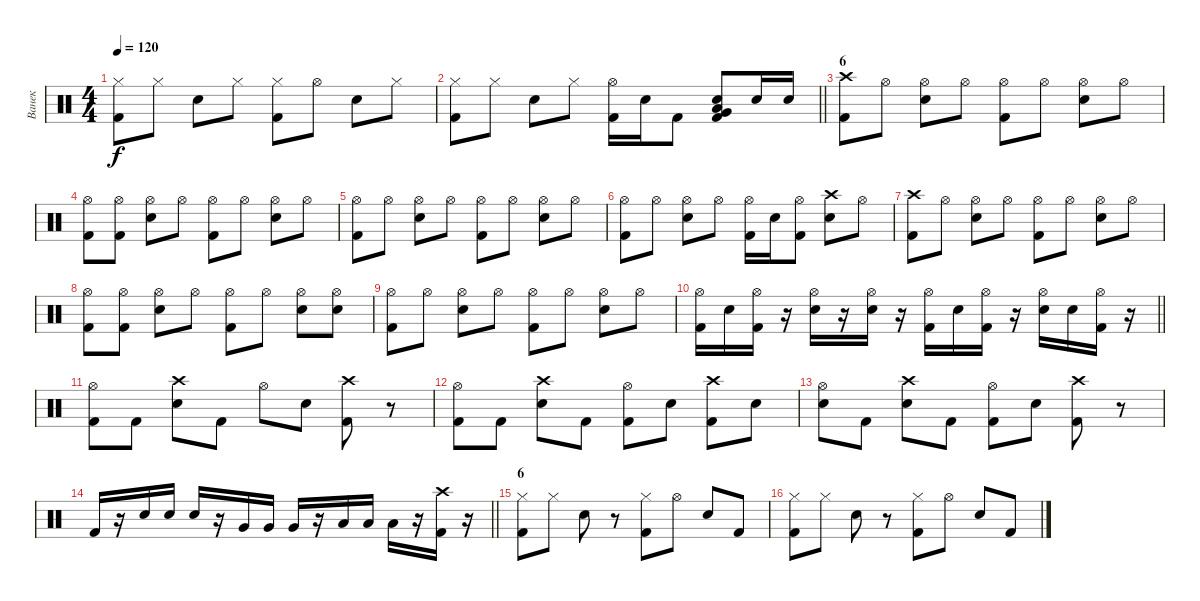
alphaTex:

\track ("Ванек" "Ванек") {instrument percussion}
\staff {score}
\articulation defaults
\ts (4 4)
\tempo 120
\clef neutral
\ks c
("Hi-Hat (closed)" "Kick (hit) 2").8{dy f} "Hi-Hat (closed)".8 "Electric Snare (hit)".8 "Hi-Hat (closed)".8 ("Hi-Hat (closed)" "Kick (hit) 2").8 "Hi-Hat (open)".8 "Electric Snare (hit)".8 "Hi-Hat (closed)".8 |
\barLineRight lightlight
("Hi-Hat (closed)" "Kick (hit) 2").8 "Hi-Hat (closed)".8 "Electric Snare (hit)".8 "Hi-Hat (closed)".8 ("Hi-Hat (open)" "Kick (hit) 2").16 "Electric Snare (hit)".16 "Kick (hit) 2".8 ("Low Tom (hit)" "Very Low Tom (hit)" "Electric Snare (hit)" "Kick (hit) 2").8 "Electric Snare (hit)".16 "Electric Snare (hit)".16 |
\section ("" "6")
("Crash high (hit)" "Kick (hit) 2").8 "Hi-Hat (open)".8 ("Hi-Hat (open)" "Electric Snare (hit)").8 "Hi-Hat (open)".8 ("Hi-Hat (open)" "Kick (hit) 2").8 "Hi-Hat (open)".8 ("Hi-Hat (open)" "Electric Snare (hit)").8 "Hi-Hat (open)".8 |
("Hi-Hat (open)" "Kick (hit) 2").8 ("Hi-Hat (open)" "Kick (hit) 2").8 ("Hi-Hat (open)" "Electric Snare (hit)").8 "Hi-Hat (open)".8 ("Hi-Hat (open)" "Kick (hit) 2").8 "Hi-Hat (open)".8 ("Hi-Hat (open)" "Electric Snare (hit)").8 "Hi-Hat (open)".8 |
("Hi-Hat (open)" "Kick (hit) 2").8 "Hi-Hat (open)".8 ("Hi-Hat (open)" "Electric Snare (hit)").8 "Hi-Hat (open)".8 ("Hi-Hat (open)" "Kick (hit) 2").8 "Hi-Hat (open)".8 ("Hi-Hat (open)" "Electric Snare (hit)").8 "Hi-Hat (open)".8 |
("Hi-Hat (open)" "Kick (hit) 2").8 "Hi-Hat (open)".8 ("Hi-Hat (open)" "Electric Snare (hit)").8 "Hi-Hat (open)".8 ("Hi-Hat (open)" "Kick (hit) 2").16 "Electric Snare (hit)".16 ("Hi-Hat (open)" "Kick (hit) 2").8 ("Crash high (hit)" "Electric Snare (hit)").8 "Hi-Hat (open)".8 |
("Crash high (hit)" "Kick (hit) 2").8 "Hi-Hat (open)".8 ("Hi-Hat (open)" "Electric Snare (hit)").8 "Hi-Hat (open)".8 ("Hi-Hat (open)" "Kick (hit) 2").8 "Hi-Hat (open)".8 ("Hi-Hat (open)" "Electric Snare (hit)").8 "Hi-Hat (open)".8 |
("Hi-Hat (open)" "Kick (hit) 2").8 ("Hi-Hat (open)" "Kick (hit) 2").8 ("Hi-Hat (open)" "Electric Snare (hit)").8 "Hi-Hat (open)".8 ("Hi-Hat (open)" "Kick (hit) 2").8 "Hi-Hat (open)".8 ("Hi-Hat (open)" "Electric Snare (hit)").8 ("Hi-Hat (open)" "Electric Snare (hit)").8 |
("Hi-Hat (open)" "Kick (hit) 2").8 "Hi-Hat (open)".8 ("Hi-Hat (open)" "Electric Snare (hit)").8 "Hi-Hat (open)".8 ("Hi-Hat (open)" "Kick (hit) 2").8 "Hi-Hat (open)".8 ("Hi-Hat (open)" "Electric Snare (hit)").8 "Hi-Hat (open)".8 |
\barLineRight lightlight
("Hi-Hat (open)" "Kick (hit) 2").16 "Electric Snare (hit)".16 ("Hi-Hat (open)" "Kick (hit) 2").16 r.16 ("Hi-Hat (open)" "Electric Snare (hit)").16 r.16 ("Hi-Hat (open)" "Electric Snare (hit)").16 r.16 ("Hi-Hat (open)" "Kick (hit) 2").16 "Electric Snare (hit)".16 ("Hi-Hat (open)" "Kick (hit) 2").16 r.16 ("Hi-Hat (open)" "Electric Snare (hit)").16 "Electric Snare (hit)".16 ("Hi-Hat (open)" "Kick (hit) 2").16 r.16 |
("Hi-Hat (open)" "Kick (hit) 2").8 "Kick (hit) 2".8 ("Crash high (hit)" "Electric Snare (hit)").8 "Kick (hit) 2".8 "Hi-Hat (open)".8 "Electric Snare (hit)".8 ("Crash high (hit)" "Kick (hit) 2").8 r.8 |
("Hi-Hat (open)" "Kick (hit) 2").8 "Kick (hit) 2".8 ("Crash high (hit)" "Electric Snare (hit)").8 "Kick (hit) 2".8 ("Hi-Hat (open)" "Kick (hit) 2").8 "Electric Snare (hit)".8 ("Crash high (hit)" "Kick (hit) 2").8 "Electric Snare (hit)".8 |
("Hi-Hat (open)" "Electric Snare (hit)").8 "Kick (hit) 2".8 ("Crash high (hit)" "Electric Snare (hit)").8 "Kick (hit) 2".8 ("Hi-Hat (open)" "Kick (hit) 2").8 "Electric Snare (hit)".8 ("Crash high (hit)" "Kick (hit) 2").8 r.8 |
\barLineRight lightlight "Kick (hit) 2".16
r.16 "Electric Snare (hit)".16 "Electric Snare (hit)".16 "Electric Snare (hit)".16 r.16 "Very Low Tom (hit)".16 "Very Low Tom (hit)".16 "Very Low Tom (hit)".16 r.16 "Low Tom (hit)".16 "Low Tom (hit)".16 "Low Tom (hit)".16 r.16 ("Crash high (hit)" "Kick (hit) 2").16 r.16 |
\section ("" "6")
("Hi-Hat (closed)" "Kick (hit) 2").8 "Hi-Hat (closed)".8 "Electric Snare (hit)".8 r.8 ("Hi-Hat (closed)" "Kick (hit) 2").8 "Hi-Hat (open)".8 "Electric Snare (hit)".8 "Kick (hit) 2".8 |
("Hi-Hat (closed)" "Kick (hit) 2").8 "Hi-Hat (closed)".8 "Electric Snare (hit)".8 r.8 ("Hi-Hat (closed)" "Kick (hit) 2").8 "Hi-Hat (open)".8 "Electric Snare (hit)".8 "Kick (hit) 2".8
